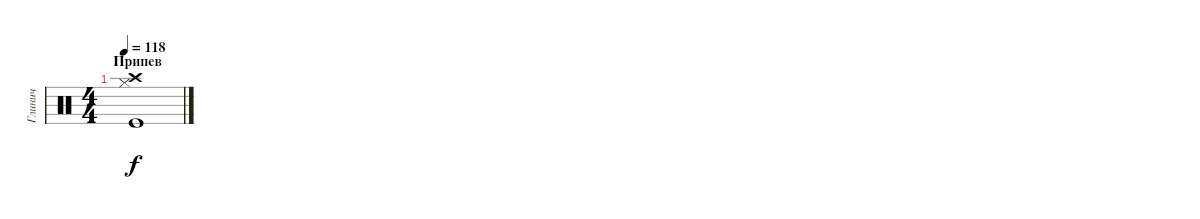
\track ("Глинич" "Глинич") {instrument percussion}
\staff {score}
\articulation defaults
\ts (4 4)
\section ("" "Припев")
\tempo 118
\clef neutral
\ks c
("Hi-Hat (closed)" "Kick (hit)" "Crash high (hit)").1{dy f}
